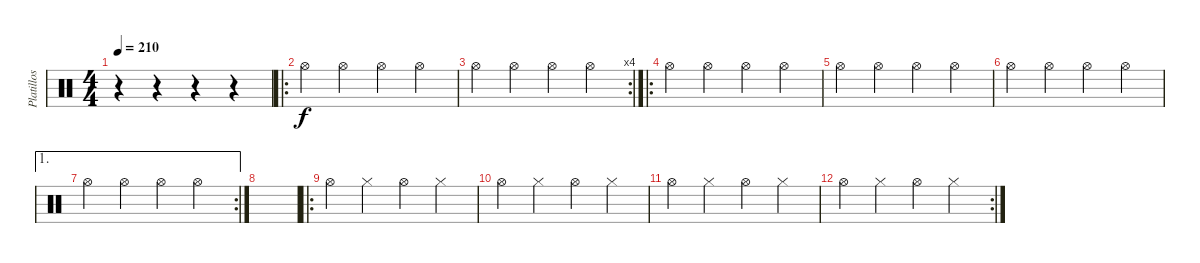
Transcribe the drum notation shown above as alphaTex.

\track ("Platillos (Leo)" "Platillos ") {instrument percussion}
\staff {score}
\articulation defaults
\ts (4 4)
\tempo 210
\clef neutral
\ks c
r.4{dy f} r.4 r.4 r.4 |
\ro "Hi-Hat (open)".4 "Hi-Hat (open)".4 "Hi-Hat (open)".4 "Hi-Hat (open)".4
|
\rc 4 "Hi-Hat (open)".4 "Hi-Hat (open)".4 "Hi-Hat (open)".4 "Hi-Hat (open)".4
|
\ro "Hi-Hat (open)".4 "Hi-Hat (open)".4 "Hi-Hat (open)".4 "Hi-Hat (open)".4
|
"Hi-Hat (open)".4 "Hi-Hat (open)".4 "Hi-Hat (open)".4 "Hi-Hat (open)".4 |
"Hi-Hat (open)".4 "Hi-Hat (open)".4 "Hi-Hat (open)".4 "Hi-Hat (open)".4 |
\ae 1
\rc 2 "Hi-Hat (open)".4 "Hi-Hat (open)".4 "Hi-Hat (open)".4 "Hi-Hat (open)".4
|
|
\ro "Hi-Hat (open)".4 "Hi-Hat (closed)".4 "Hi-Hat (open)".4 "Hi-Hat (closed)".4
|
"Hi-Hat (open)".4 "Hi-Hat (closed)".4 "Hi-Hat (open)".4 "Hi-Hat (closed)".4 |
"Hi-Hat (open)".4 "Hi-Hat (closed)".4 "Hi-Hat (open)".4 "Hi-Hat (closed)".4 |
\rc 2 "Hi-Hat (open)".4 "Hi-Hat (closed)".4 "Hi-Hat (open)".4 "Hi-Hat (closed)".4
